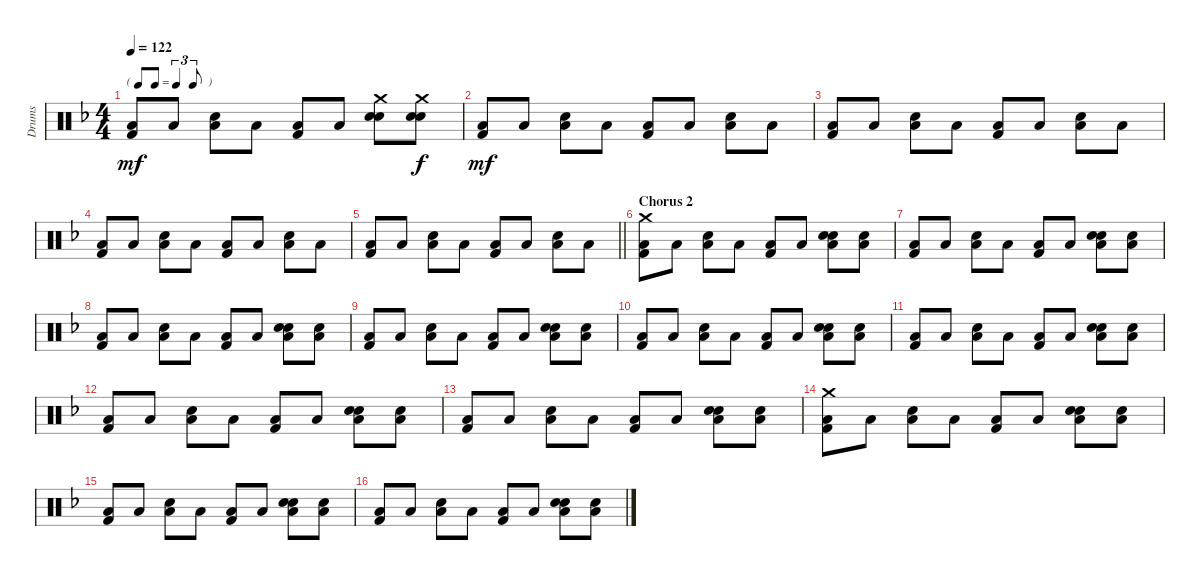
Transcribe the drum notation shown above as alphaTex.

\track ("Drums" "Drums") {instrument percussion}
\staff {score}
\articulation defaults
\ts (4 4)
\tf triplet8th
\tempo 122
\clef neutral
\ks dminor
("Low Floor Tom (hit)" "Kick (hit) 2").8{dy mf} "Low Floor Tom (hit)".8 ("Low Floor Tom (hit)" "Snare (hit) 2").8 "Low Floor Tom (hit)".8 ("Low Floor Tom (hit)" "Kick (hit) 2").8 "Low Floor Tom (hit)".8 ("Crash medium (hit)" "Hand Clap (hit)" "Snare (hit) 2").8 ("Crash medium (hit)" "Hand Clap (hit)" "Snare (hit) 2").8{dy f} |
("Low Floor Tom (hit)" "Kick (hit) 2").8{dy mf} "Low Floor Tom (hit)".8 ("Low Floor Tom (hit)" "Snare (hit) 2").8 "Low Floor Tom (hit)".8 ("Low Floor Tom (hit)" "Kick (hit) 2").8 "Low Floor Tom (hit)".8 ("Low Floor Tom (hit)" "Snare (hit) 2").8 "Low Floor Tom (hit)".8 |
("Low Floor Tom (hit)" "Kick (hit) 2").8 "Low Floor Tom (hit)".8 ("Low Floor Tom (hit)" "Snare (hit) 2").8 "Low Floor Tom (hit)".8 ("Low Floor Tom (hit)" "Kick (hit) 2").8 "Low Floor Tom (hit)".8 ("Low Floor Tom (hit)" "Snare (hit) 2").8 "Low Floor Tom (hit)".8 |
("Low Floor Tom (hit)" "Kick (hit) 2").8 "Low Floor Tom (hit)".8 ("Low Floor Tom (hit)" "Snare (hit) 2").8 "Low Floor Tom (hit)".8 ("Low Floor Tom (hit)" "Kick (hit) 2").8 "Low Floor Tom (hit)".8 ("Low Floor Tom (hit)" "Snare (hit) 2").8 "Low Floor Tom (hit)".8 |
\barLineRight lightlight
("Low Floor Tom (hit)" "Kick (hit) 2").8 "Low Floor Tom (hit)".8 ("Low Floor Tom (hit)" "Snare (hit) 2").8 "Low Floor Tom (hit)".8 ("Low Floor Tom (hit)" "Kick (hit) 2").8 "Low Floor Tom (hit)".8 ("Low Floor Tom (hit)" "Snare (hit) 2").8 "Low Floor Tom (hit)".8 |
\section ("" "Chorus 2")
("Crash medium (hit)" "Low Floor Tom (hit)" "Kick (hit) 2").8 "Low Floor Tom (hit)".8 ("Low Floor Tom (hit)" "Snare (hit) 2").8 "Low Floor Tom (hit)".8 ("Low Floor Tom (hit)" "Kick (hit) 2").8 "Low Floor Tom (hit)".8 ("Hand Clap (hit)" "Low Floor Tom (hit)" "Snare (hit) 2").8 ("Hand Clap (hit)" "Low Floor Tom (hit)").8 |
("Low Floor Tom (hit)" "Kick (hit) 2").8 "Low Floor Tom (hit)".8 ("Low Floor Tom (hit)" "Snare (hit) 2").8 "Low Floor Tom (hit)".8 ("Low Floor Tom (hit)" "Kick (hit) 2").8 "Low Floor Tom (hit)".8 ("Hand Clap (hit)" "Low Floor Tom (hit)" "Snare (hit) 2").8 ("Hand Clap (hit)" "Low Floor Tom (hit)").8 |
("Low Floor Tom (hit)" "Kick (hit) 2").8 "Low Floor Tom (hit)".8 ("Low Floor Tom (hit)" "Snare (hit) 2").8 "Low Floor Tom (hit)".8 ("Low Floor Tom (hit)" "Kick (hit) 2").8 "Low Floor Tom (hit)".8 ("Hand Clap (hit)" "Low Floor Tom (hit)" "Snare (hit) 2").8 ("Hand Clap (hit)" "Low Floor Tom (hit)").8 |
("Low Floor Tom (hit)" "Kick (hit) 2").8 "Low Floor Tom (hit)".8 ("Low Floor Tom (hit)" "Snare (hit) 2").8 "Low Floor Tom (hit)".8 ("Low Floor Tom (hit)" "Kick (hit) 2").8 "Low Floor Tom (hit)".8 ("Hand Clap (hit)" "Low Floor Tom (hit)" "Snare (hit) 2").8 ("Hand Clap (hit)" "Low Floor Tom (hit)").8 |
("Low Floor Tom (hit)" "Kick (hit) 2").8 "Low Floor Tom (hit)".8 ("Low Floor Tom (hit)" "Snare (hit) 2").8 "Low Floor Tom (hit)".8 ("Low Floor Tom (hit)" "Kick (hit) 2").8 "Low Floor Tom (hit)".8 ("Hand Clap (hit)" "Low Floor Tom (hit)" "Snare (hit) 2").8 ("Hand Clap (hit)" "Low Floor Tom (hit)").8 |
("Low Floor Tom (hit)" "Kick (hit) 2").8 "Low Floor Tom (hit)".8 ("Low Floor Tom (hit)" "Snare (hit) 2").8 "Low Floor Tom (hit)".8 ("Low Floor Tom (hit)" "Kick (hit) 2").8 "Low Floor Tom (hit)".8 ("Hand Clap (hit)" "Low Floor Tom (hit)" "Snare (hit) 2").8 ("Hand Clap (hit)" "Low Floor Tom (hit)").8 |
("Low Floor Tom (hit)" "Kick (hit) 2").8 "Low Floor Tom (hit)".8 ("Low Floor Tom (hit)" "Snare (hit) 2").8 "Low Floor Tom (hit)".8 ("Low Floor Tom (hit)" "Kick (hit) 2").8 "Low Floor Tom (hit)".8 ("Hand Clap (hit)" "Low Floor Tom (hit)" "Snare (hit) 2").8 ("Hand Clap (hit)" "Low Floor Tom (hit)").8 |
("Low Floor Tom (hit)" "Kick (hit) 2").8 "Low Floor Tom (hit)".8 ("Low Floor Tom (hit)" "Snare (hit) 2").8 "Low Floor Tom (hit)".8 ("Low Floor Tom (hit)" "Kick (hit) 2").8 "Low Floor Tom (hit)".8 ("Hand Clap (hit)" "Low Floor Tom (hit)" "Snare (hit) 2").8 ("Hand Clap (hit)" "Low Floor Tom (hit)").8 |
("Crash medium (hit)" "Low Floor Tom (hit)" "Kick (hit) 2").8 "Low Floor Tom (hit)".8 ("Low Floor Tom (hit)" "Snare (hit) 2").8 "Low Floor Tom (hit)".8 ("Low Floor Tom (hit)" "Kick (hit) 2").8 "Low Floor Tom (hit)".8 ("Hand Clap (hit)" "Low Floor Tom (hit)" "Snare (hit) 2").8 ("Hand Clap (hit)" "Low Floor Tom (hit)").8 |
("Low Floor Tom (hit)" "Kick (hit) 2").8 "Low Floor Tom (hit)".8 ("Low Floor Tom (hit)" "Snare (hit) 2").8 "Low Floor Tom (hit)".8 ("Low Floor Tom (hit)" "Kick (hit) 2").8 "Low Floor Tom (hit)".8 ("Hand Clap (hit)" "Low Floor Tom (hit)" "Snare (hit) 2").8 ("Hand Clap (hit)" "Low Floor Tom (hit)").8 |
("Low Floor Tom (hit)" "Kick (hit) 2").8 "Low Floor Tom (hit)".8 ("Low Floor Tom (hit)" "Snare (hit) 2").8 "Low Floor Tom (hit)".8 ("Low Floor Tom (hit)" "Kick (hit) 2").8 "Low Floor Tom (hit)".8 ("Hand Clap (hit)" "Low Floor Tom (hit)" "Snare (hit) 2").8 ("Hand Clap (hit)" "Low Floor Tom (hit)").8
